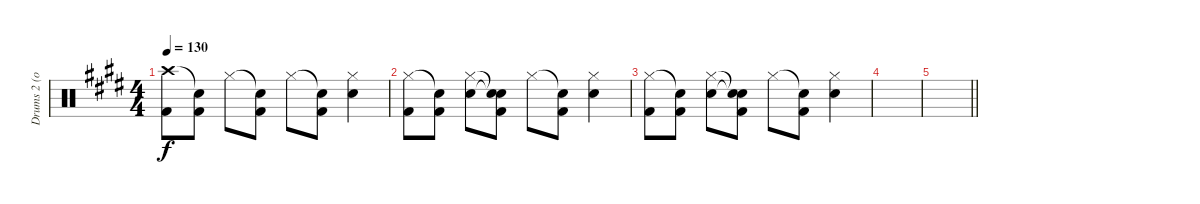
\track ("Drums 2 (optional)" "Drums 2 (o") {instrument percussion}
\staff {score}
\articulation defaults
\ts (4 4)
\tempo 130
\clef neutral
\ks e
("Crash high (hit)" "Kick (hit) 2").8{dy f} ("Snare (hit)"{t} "Kick (hit) 2").8 "Hi-Hat (closed)".8 ("Snare (hit)"{t} "Kick (hit) 2").8 "Hi-Hat (closed)".8 ("Snare (hit)"{t} "Kick (hit) 2").8 ("Hi-Hat (closed)" "Snare (hit) 2").4 |
("Hi-Hat (closed)" "Kick (hit) 2").8 ("Snare (hit)"{t} "Kick (hit) 2").8 ("Hi-Hat (closed)" "Snare (hit) 2").8 ("Snare (hit)"{t} "Snare (hit)"{t} "Kick (hit) 2").8 "Hi-Hat (closed)".8 ("Snare (hit)"{t} "Kick (hit) 2").8 ("Hi-Hat (closed)" "Snare (hit) 2").4 |
("Hi-Hat (closed)" "Kick (hit) 2").8 ("Snare (hit)"{t} "Kick (hit) 2").8 ("Hi-Hat (closed)" "Snare (hit) 2").8 ("Snare (hit)"{t} "Snare (hit)"{t} "Kick (hit) 2").8 "Hi-Hat (closed)".8 ("Snare (hit)"{t} "Kick (hit) 2").8 ("Hi-Hat (closed)" "Snare (hit) 2").4 |
|
\barLineRight lightlight
